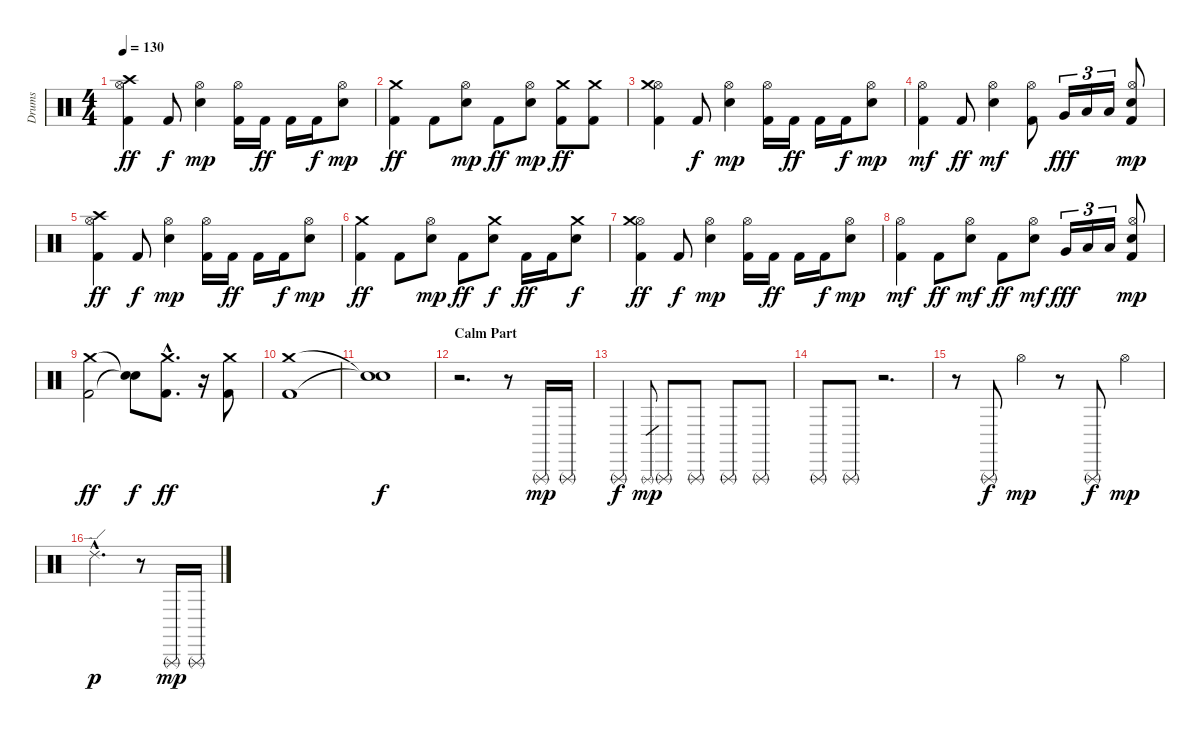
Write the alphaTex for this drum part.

\track ("Drums" "Drums") {instrument percussion}
\staff {score}
\articulation defaults
\ts (4 4)
\tempo 130
\clef neutral
\ks c
("Kick (hit) 2" "Hi-Hat (open)" "Crash high (hit)").4{dy ff} "Kick (hit) 2".8{dy f} ("Hi-Hat (open)" "Snare (hit) 2").4{dy mp} ("Kick (hit) 2" "Hi-Hat (open)").16 "Kick (hit) 2".16{dy ff} "Kick (hit) 2".16 "Kick (hit) 2".16{dy f} ("Hi-Hat (open)" "Snare (hit) 2").8{dy mp} |
("Kick (hit) 2" "Crash medium (hit)").4{dy ff} "Kick (hit) 2".8 ("Hi-Hat (open)" "Snare (hit) 2").8{dy mp} "Kick (hit) 2".8{dy ff} ("Hi-Hat (open)" "Snare (hit) 2").8{dy mp} ("Kick (hit) 2" "Crash medium (hit)").8{dy ff} ("Kick (hit) 2" "Crash medium (hit)").8 |
("Kick (hit) 2" "Hi-Hat (open)" "Crash medium (hit)").4 "Kick (hit) 2".8{dy f} ("Hi-Hat (open)" "Snare (hit) 2").4{dy mp} ("Kick (hit) 2" "Hi-Hat (open)").16 "Kick (hit) 2".16{dy ff} "Kick (hit) 2".16 "Kick (hit) 2".16{dy f} ("Hi-Hat (open)" "Snare (hit) 2").8{dy mp} |
("Kick (hit) 2" "Hi-Hat (open)").4{dy mf} "Kick (hit) 2".8{dy ff} ("Hi-Hat (open)" "Snare (hit) 2").4{dy mf} ("Kick (hit) 2" "Hi-Hat (open)").8 "Very Low Tom (hit)".16{tu (3 2) dy fff} "Low Floor Tom (hit)".16{tu (3 2)} "Low Floor Tom (hit)".16{tu (3 2)} ("Kick (hit) 2" "Hi-Hat (open)" "Snare (hit) 2").8{dy mp} |
("Kick (hit) 2" "Hi-Hat (open)" "Crash high (hit)").4{dy ff} "Kick (hit) 2".8{dy f} ("Hi-Hat (open)" "Snare (hit) 2").4{dy mp} ("Kick (hit) 2" "Hi-Hat (open)").16 "Kick (hit) 2".16{dy ff} "Kick (hit) 2".16 "Kick (hit) 2".16{dy f} ("Hi-Hat (open)" "Snare (hit) 2").8{dy mp} |
("Kick (hit) 2" "Crash medium (hit)").4{dy ff} "Kick (hit) 2".8 ("Hi-Hat (open)" "Snare (hit) 2").8{dy mp} "Kick (hit) 2".8{dy ff} ("Snare (hit) 2" "Crash medium (hit)").8{dy f} "Kick (hit) 2".16{dy ff} "Kick (hit) 2".16 ("Snare (hit) 2" "Crash medium (hit)").8{dy f} |
("Kick (hit) 2" "Hi-Hat (open)" "Crash medium (hit)").4{dy ff} "Kick (hit) 2".8{dy f} ("Hi-Hat (open)" "Snare (hit) 2").4{dy mp} ("Kick (hit) 2" "Hi-Hat (open)").16 "Kick (hit) 2".16{dy ff} "Kick (hit) 2".16 "Kick (hit) 2".16{dy f} ("Hi-Hat (open)" "Snare (hit) 2").8{dy mp} |
("Kick (hit) 2" "Hi-Hat (open)").4{dy mf} "Kick (hit) 2".8{dy ff} ("Hi-Hat (open)" "Snare (hit) 2").8{dy mf} "Kick (hit) 2".8{dy ff} ("Hi-Hat (open)" "Snare (hit) 2").8{dy mf} "Very Low Tom (hit)".16{tu (3 2) dy fff} "Low Floor Tom (hit)".16{tu (3 2)} "Low Floor Tom (hit)".16{tu (3 2)} ("Kick (hit) 2" "Hi-Hat (open)" "Snare (hit) 2").8{dy mp} |
("Kick (hit) 2" "Crash medium (hit)").2{dy ff} ("Snare (hit)"{t} "Snare (hit)"{t}).8{dy f} ("Kick (hit) 2"{hac} "Crash medium (hit)"{hac}).8{d dy ff} r.16 ("Kick (hit) 2" "Crash medium (hit)").8 |
("Kick (hit) 2" "Crash medium (hit)").1 |
("Snare (hit)"{t} "Snare (hit)"{t}).1{dy f} |
\section ("" "Calm Part")
r.2{d} r.8 "Triangle (rnute)".16{dy mp} "Triangle (rnute)".16 |
"Triangle (rnute)".2{dy f} "Triangle (rnute)".8{gr dy mp} "Triangle (rnute)".8 "Triangle (rnute)".8 "Triangle (rnute)".8 "Triangle (rnute)".8 |
"Triangle (rnute)".8 "Triangle (rnute)".8 r.2{d} |
r.8 "Triangle (rnute)".8{dy f} "Hi-Hat (open)".4{dy mp} r.8 "Triangle (rnute)".8{dy f} "Hi-Hat (open)".4{dy mp} |
"Ride (edge) 2"{hac}.2{d dy p} r.8 "Triangle (rnute)".16{dy mp} "Triangle (rnute)".16
